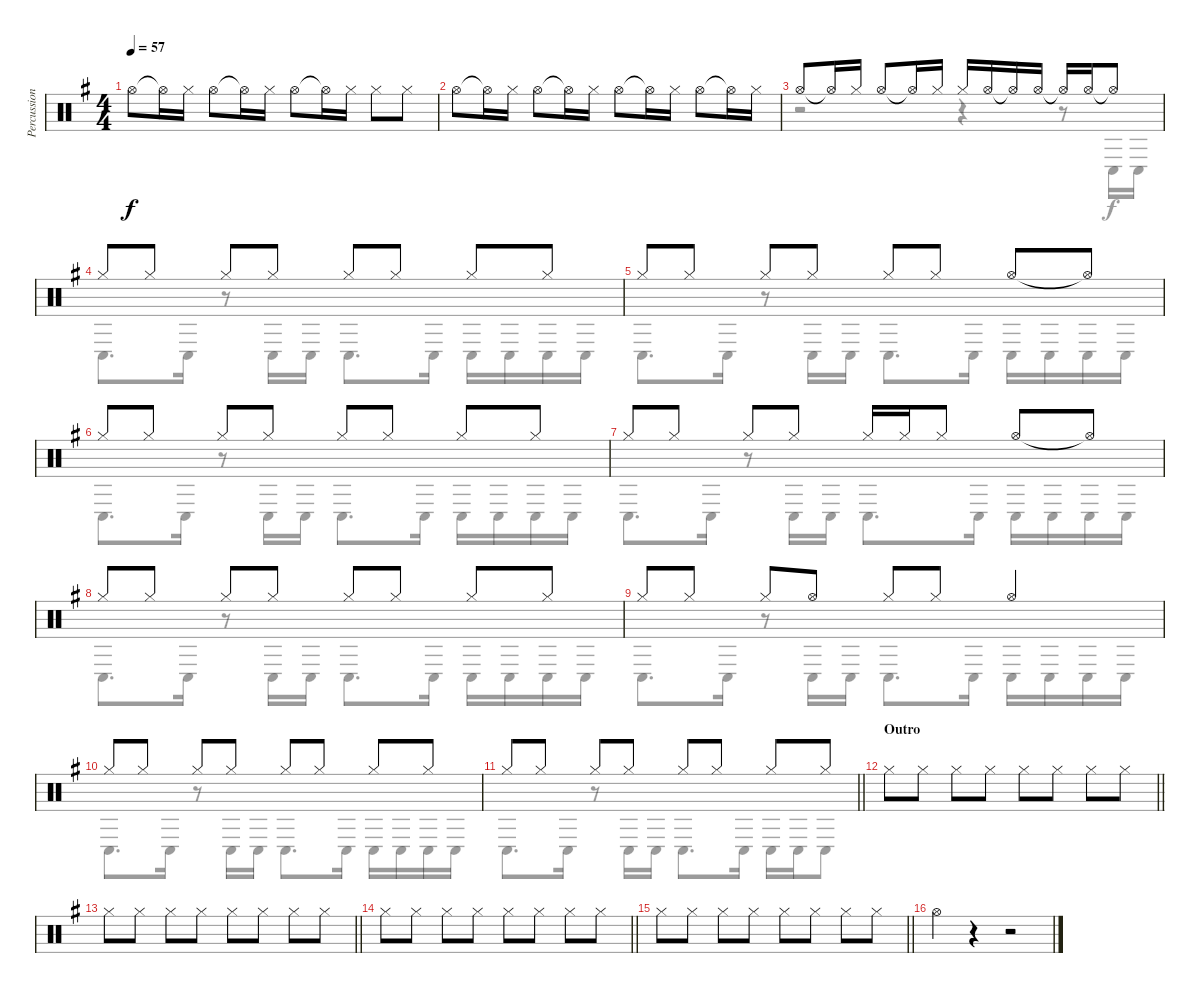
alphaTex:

\track ("Percussion 1" "Percussion") {instrument percussion}
\staff {score}
\articulation defaults
\voice
\ts (4 4)
\tempo 57
\clef neutral
\ks g "Hi-Hat (open)".8{dy f} "Hi-Hat (open)"{t}.16 "Hi-Hat (closed)".16 "Hi-Hat (open)".8 "Hi-Hat (open)"{t}.16 "Hi-Hat (closed)".16 "Hi-Hat (open)".8 "Hi-Hat (open)"{t}.16 "Hi-Hat (closed)".16 "Hi-Hat (closed)".8 "Hi-Hat (closed)".8
|
"Hi-Hat (open)".8 "Hi-Hat (open)"{t}.16 "Hi-Hat (closed)".16 "Hi-Hat (open)".8 "Hi-Hat (open)"{t}.16 "Hi-Hat (closed)".16 "Hi-Hat (open)".8 "Hi-Hat (open)"{t}.16 "Hi-Hat (closed)".16 "Hi-Hat (open)".8 "Hi-Hat (open)"{t}.16 "Hi-Hat (closed)".16 |
"Hi-Hat (open)".8 "Hi-Hat (open)"{t}.16 "Hi-Hat (closed)".16 "Hi-Hat (open)".8 "Hi-Hat (open)"{t}.16 "Hi-Hat (closed)".16 "Hi-Hat (closed)".16 "Hi-Hat (open)".16 "Hi-Hat (open)"{t}.16 "Hi-Hat (open)".16 "Hi-Hat (open)"{t}.16 "Hi-Hat (open)".16 "Hi-Hat (open)"{t}.8 |
"Hi-Hat (closed)".8 "Hi-Hat (closed)".8 "Hi-Hat (closed)".8 "Hi-Hat (closed)".8 "Hi-Hat (closed)".8 "Hi-Hat (closed)".8 "Hi-Hat (closed)".8 "Hi-Hat (closed)".8 |
"Hi-Hat (closed)".8 "Hi-Hat (closed)".8 "Hi-Hat (closed)".8 "Hi-Hat (closed)".8 "Hi-Hat (closed)".8 "Hi-Hat (closed)".8 "Hi-Hat (open)".8 "Hi-Hat (open)"{t}.8 |
"Hi-Hat (closed)".8 "Hi-Hat (closed)".8 "Hi-Hat (closed)".8 "Hi-Hat (closed)".8 "Hi-Hat (closed)".8 "Hi-Hat (closed)".8 "Hi-Hat (closed)".8 "Hi-Hat (closed)".8 |
"Hi-Hat (closed)".8 "Hi-Hat (closed)".8 "Hi-Hat (closed)".8 "Hi-Hat (closed)".8 "Hi-Hat (closed)".16 "Hi-Hat (closed)".16 "Hi-Hat (closed)".8 "Hi-Hat (open)".8 "Hi-Hat (open)"{t}.8 |
"Hi-Hat (closed)".8 "Hi-Hat (closed)".8 "Hi-Hat (closed)".8 "Hi-Hat (closed)".8 "Hi-Hat (closed)".8 "Hi-Hat (closed)".8 "Hi-Hat (closed)".8 "Hi-Hat (closed)".8 |
"Hi-Hat (closed)".8 "Hi-Hat (closed)".8 "Hi-Hat (closed)".8 "Hi-Hat (open)".8 "Hi-Hat (closed)".8 "Hi-Hat (closed)".8 "Hi-Hat (open)".4 |
"Hi-Hat (closed)".8 "Hi-Hat (closed)".8 "Hi-Hat (closed)".8 "Hi-Hat (closed)".8 "Hi-Hat (closed)".8 "Hi-Hat (closed)".8 "Hi-Hat (closed)".8 "Hi-Hat (closed)".8 |
\barLineRight lightlight "Hi-Hat (closed)".8 "Hi-Hat (closed)".8 "Hi-Hat (closed)".8 "Hi-Hat (closed)".8 "Hi-Hat (closed)".8 "Hi-Hat (closed)".8 "Hi-Hat (closed)".8 "Hi-Hat (closed)".8
|
\section ("" "Outro")
\barLineRight lightlight "Hi-Hat (closed)".8 "Hi-Hat (closed)".8 "Hi-Hat (closed)".8 "Hi-Hat (closed)".8 "Hi-Hat (closed)".8 "Hi-Hat (closed)".8 "Hi-Hat (closed)".8 "Hi-Hat (closed)".8
|
\barLineRight lightlight "Hi-Hat (closed)".8 "Hi-Hat (closed)".8 "Hi-Hat (closed)".8 "Hi-Hat (closed)".8 "Hi-Hat (closed)".8 "Hi-Hat (closed)".8 "Hi-Hat (closed)".8 "Hi-Hat (closed)".8
|
\barLineRight lightlight "Hi-Hat (closed)".8 "Hi-Hat (closed)".8 "Hi-Hat (closed)".8 "Hi-Hat (closed)".8 "Hi-Hat (closed)".8 "Hi-Hat (closed)".8 "Hi-Hat (closed)".8 "Hi-Hat (closed)".8
|
\barLineRight lightlight "Hi-Hat (closed)".8 "Hi-Hat (closed)".8 "Hi-Hat (closed)".8 "Hi-Hat (closed)".8 "Hi-Hat (closed)".8 "Hi-Hat (closed)".8 "Hi-Hat (closed)".8 "Hi-Hat (closed)".8
|
"Hi-Hat (open)".4 r.4 r.2
\voice
\clef neutral
\ottava regular
\simile none
\ks g
|
|
r.2 r.4 r.8 "Conga low (hit)".16 "Conga low (hit)".16 |
"Conga low (hit)".8{d} "Conga low (hit)".16 r.8 "Conga low (hit)".16 "Conga low (hit)".16 "Conga low (hit)".8{d} "Conga low (hit)".16 "Conga low (hit)".16 "Conga low (hit)".16 "Conga low (hit)".16 "Conga low (hit)".16 |
"Conga low (hit)".8{d} "Conga low (hit)".16 r.8 "Conga low (hit)".16 "Conga low (hit)".16 "Conga low (hit)".8{d} "Conga low (hit)".16 "Conga low (hit)".16 "Conga low (hit)".16 "Conga low (hit)".16 "Conga low (hit)".16 |
"Conga low (hit)".8{d} "Conga low (hit)".16 r.8 "Conga low (hit)".16 "Conga low (hit)".16 "Conga low (hit)".8{d} "Conga low (hit)".16 "Conga low (hit)".16 "Conga low (hit)".16 "Conga low (hit)".16 "Conga low (hit)".16 |
"Conga low (hit)".8{d} "Conga low (hit)".16 r.8 "Conga low (hit)".16 "Conga low (hit)".16 "Conga low (hit)".8{d} "Conga low (hit)".16 "Conga low (hit)".16 "Conga low (hit)".16 "Conga low (hit)".16 "Conga low (hit)".16 |
"Conga low (hit)".8{d} "Conga low (hit)".16 r.8 "Conga low (hit)".16 "Conga low (hit)".16 "Conga low (hit)".8{d} "Conga low (hit)".16 "Conga low (hit)".16 "Conga low (hit)".16 "Conga low (hit)".16 "Conga low (hit)".16 |
"Conga low (hit)".8{d} "Conga low (hit)".16 r.8 "Conga low (hit)".16 "Conga low (hit)".16 "Conga low (hit)".8{d} "Conga low (hit)".16 "Conga low (hit)".16 "Conga low (hit)".16 "Conga low (hit)".16 "Conga low (hit)".16 |
"Conga low (hit)".8{d} "Conga low (hit)".16 r.8 "Conga low (hit)".16 "Conga low (hit)".16 "Conga low (hit)".8{d} "Conga low (hit)".16 "Conga low (hit)".16 "Conga low (hit)".16 "Conga low (hit)".16 "Conga low (hit)".16 |
\barLineRight lightlight "Conga low (hit)".8{d} "Conga low (hit)".16
r.8 "Conga low (hit)".16 "Conga low (hit)".16 "Conga low (hit)".8{d} "Conga low (hit)".16 "Conga low (hit)".16 "Conga low (hit)".16 "Conga low (hit)".8 |
\barLineRight lightlight
|
\barLineRight lightlight
|
\barLineRight lightlight
|
\barLineRight lightlight
|
